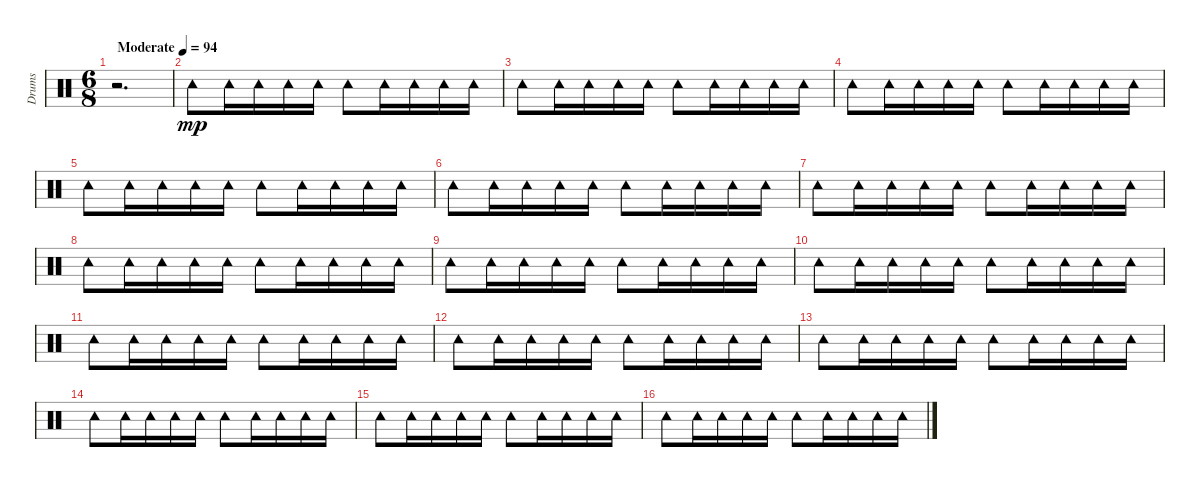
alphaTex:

\track ("Drums" "Drums") {instrument percussion}
\staff {score}
\articulation defaults
\ts (6 8)
\tempo (94 "Moderate")
\clef neutral
\ks c
r.2{d dy mp} |
"Tambourine (hit)".8 "Tambourine (hit)".16 "Tambourine (hit)".16 "Tambourine (hit)".16 "Tambourine (hit)".16 "Tambourine (hit)".8 "Tambourine (hit)".16 "Tambourine (hit)".16 "Tambourine (hit)".16 "Tambourine (hit)".16 |
"Tambourine (hit)".8 "Tambourine (hit)".16 "Tambourine (hit)".16 "Tambourine (hit)".16 "Tambourine (hit)".16 "Tambourine (hit)".8 "Tambourine (hit)".16 "Tambourine (hit)".16 "Tambourine (hit)".16 "Tambourine (hit)".16 |
"Tambourine (hit)".8 "Tambourine (hit)".16 "Tambourine (hit)".16 "Tambourine (hit)".16 "Tambourine (hit)".16 "Tambourine (hit)".8 "Tambourine (hit)".16 "Tambourine (hit)".16 "Tambourine (hit)".16 "Tambourine (hit)".16 |
"Tambourine (hit)".8 "Tambourine (hit)".16 "Tambourine (hit)".16 "Tambourine (hit)".16 "Tambourine (hit)".16 "Tambourine (hit)".8 "Tambourine (hit)".16 "Tambourine (hit)".16 "Tambourine (hit)".16 "Tambourine (hit)".16 |
"Tambourine (hit)".8 "Tambourine (hit)".16 "Tambourine (hit)".16 "Tambourine (hit)".16 "Tambourine (hit)".16 "Tambourine (hit)".8 "Tambourine (hit)".16 "Tambourine (hit)".16 "Tambourine (hit)".16 "Tambourine (hit)".16 |
"Tambourine (hit)".8 "Tambourine (hit)".16 "Tambourine (hit)".16 "Tambourine (hit)".16 "Tambourine (hit)".16 "Tambourine (hit)".8 "Tambourine (hit)".16 "Tambourine (hit)".16 "Tambourine (hit)".16 "Tambourine (hit)".16 |
"Tambourine (hit)".8 "Tambourine (hit)".16 "Tambourine (hit)".16 "Tambourine (hit)".16 "Tambourine (hit)".16 "Tambourine (hit)".8 "Tambourine (hit)".16 "Tambourine (hit)".16 "Tambourine (hit)".16 "Tambourine (hit)".16 |
"Tambourine (hit)".8 "Tambourine (hit)".16 "Tambourine (hit)".16 "Tambourine (hit)".16 "Tambourine (hit)".16 "Tambourine (hit)".8 "Tambourine (hit)".16 "Tambourine (hit)".16 "Tambourine (hit)".16 "Tambourine (hit)".16 |
"Tambourine (hit)".8 "Tambourine (hit)".16 "Tambourine (hit)".16 "Tambourine (hit)".16 "Tambourine (hit)".16 "Tambourine (hit)".8 "Tambourine (hit)".16 "Tambourine (hit)".16 "Tambourine (hit)".16 "Tambourine (hit)".16 |
"Tambourine (hit)".8 "Tambourine (hit)".16 "Tambourine (hit)".16 "Tambourine (hit)".16 "Tambourine (hit)".16 "Tambourine (hit)".8 "Tambourine (hit)".16 "Tambourine (hit)".16 "Tambourine (hit)".16 "Tambourine (hit)".16 |
"Tambourine (hit)".8 "Tambourine (hit)".16 "Tambourine (hit)".16 "Tambourine (hit)".16 "Tambourine (hit)".16 "Tambourine (hit)".8 "Tambourine (hit)".16 "Tambourine (hit)".16 "Tambourine (hit)".16 "Tambourine (hit)".16 |
"Tambourine (hit)".8 "Tambourine (hit)".16 "Tambourine (hit)".16 "Tambourine (hit)".16 "Tambourine (hit)".16 "Tambourine (hit)".8 "Tambourine (hit)".16 "Tambourine (hit)".16 "Tambourine (hit)".16 "Tambourine (hit)".16 |
"Tambourine (hit)".8 "Tambourine (hit)".16 "Tambourine (hit)".16 "Tambourine (hit)".16 "Tambourine (hit)".16 "Tambourine (hit)".8 "Tambourine (hit)".16 "Tambourine (hit)".16 "Tambourine (hit)".16 "Tambourine (hit)".16 |
"Tambourine (hit)".8 "Tambourine (hit)".16 "Tambourine (hit)".16 "Tambourine (hit)".16 "Tambourine (hit)".16 "Tambourine (hit)".8 "Tambourine (hit)".16 "Tambourine (hit)".16 "Tambourine (hit)".16 "Tambourine (hit)".16 |
"Tambourine (hit)".8 "Tambourine (hit)".16 "Tambourine (hit)".16 "Tambourine (hit)".16 "Tambourine (hit)".16 "Tambourine (hit)".8 "Tambourine (hit)".16 "Tambourine (hit)".16 "Tambourine (hit)".16 "Tambourine (hit)".16
